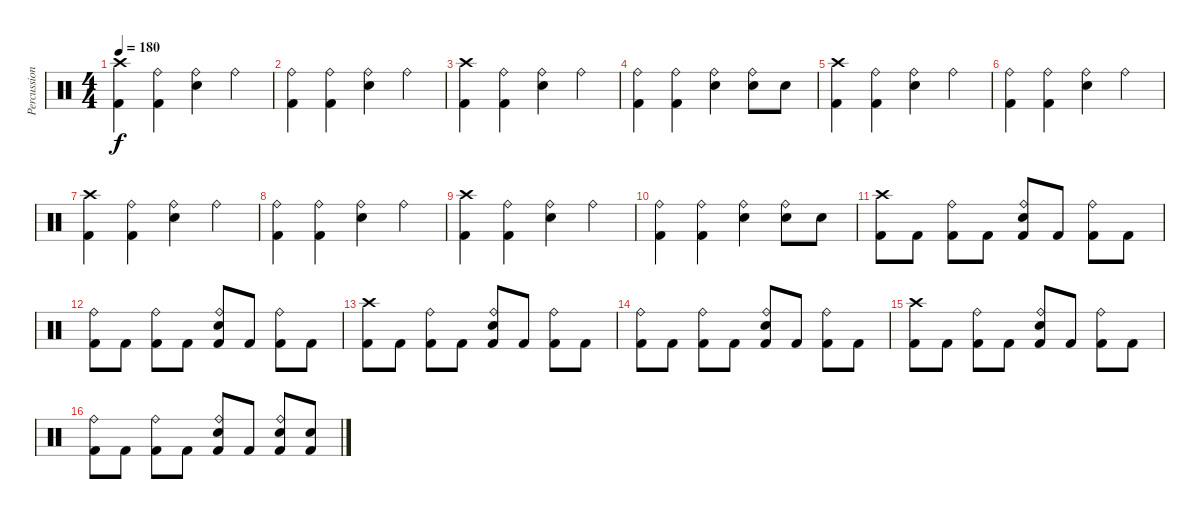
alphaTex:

\track ("Percussion" "Percussion") {instrument percussion}
\staff {score}
\articulation defaults
\ts (4 4)
\tempo 180
\clef neutral
\ks c
("Crash high (hit)" "Kick (hit) 2").4{dy f} ("Ride (bell)" "Kick (hit) 2").4 ("Ride (bell)" "Snare (hit) 2").4 "Ride (bell)".4 |
("Ride (bell)" "Kick (hit) 2").4 ("Ride (bell)" "Kick (hit) 2").4 ("Ride (bell)" "Snare (hit) 2").4 "Ride (bell)".4 |
("Crash high (hit)" "Kick (hit) 2").4 ("Ride (bell)" "Kick (hit) 2").4 ("Ride (bell)" "Snare (hit) 2").4 "Ride (bell)".4 |
("Ride (bell)" "Kick (hit) 2").4 ("Ride (bell)" "Kick (hit) 2").4 ("Ride (bell)" "Snare (hit) 2").4 ("Ride (bell)" "Snare (hit) 2").8 "Snare (hit) 2".8 |
("Crash high (hit)" "Kick (hit) 2").4 ("Ride (bell)" "Kick (hit) 2").4 ("Ride (bell)" "Snare (hit) 2").4 "Ride (bell)".4 |
("Ride (bell)" "Kick (hit) 2").4 ("Ride (bell)" "Kick (hit) 2").4 ("Ride (bell)" "Snare (hit) 2").4 "Ride (bell)".4 |
("Crash high (hit)" "Kick (hit) 2").4 ("Ride (bell)" "Kick (hit) 2").4 ("Ride (bell)" "Snare (hit) 2").4 "Ride (bell)".4 |
("Ride (bell)" "Kick (hit) 2").4 ("Ride (bell)" "Kick (hit) 2").4 ("Ride (bell)" "Snare (hit) 2").4 "Ride (bell)".4 |
("Crash high (hit)" "Kick (hit) 2").4 ("Ride (bell)" "Kick (hit) 2").4 ("Ride (bell)" "Snare (hit) 2").4 "Ride (bell)".4 |
("Ride (bell)" "Kick (hit) 2").4 ("Ride (bell)" "Kick (hit) 2").4 ("Ride (bell)" "Snare (hit) 2").4 ("Ride (bell)" "Snare (hit) 2").8 "Snare (hit) 2".8 |
("Crash high (hit)" "Kick (hit) 2").8 "Kick (hit) 2".8 ("Ride (bell)" "Kick (hit) 2").8 "Kick (hit) 2".8 ("Ride (bell)" "Snare (hit) 2" "Kick (hit) 2").8 "Kick (hit) 2".8 ("Ride (bell)" "Kick (hit) 2").8 "Kick (hit) 2".8 |
("Ride (bell)" "Kick (hit) 2").8 "Kick (hit) 2".8 ("Ride (bell)" "Kick (hit) 2").8 "Kick (hit) 2".8 ("Ride (bell)" "Snare (hit) 2" "Kick (hit) 2").8 "Kick (hit) 2".8 ("Ride (bell)" "Kick (hit) 2").8 "Kick (hit) 2".8 |
("Crash high (hit)" "Kick (hit) 2").8 "Kick (hit) 2".8 ("Ride (bell)" "Kick (hit) 2").8 "Kick (hit) 2".8 ("Ride (bell)" "Snare (hit) 2" "Kick (hit) 2").8 "Kick (hit) 2".8 ("Ride (bell)" "Kick (hit) 2").8 "Kick (hit) 2".8 |
("Ride (bell)" "Kick (hit) 2").8 "Kick (hit) 2".8 ("Ride (bell)" "Kick (hit) 2").8 "Kick (hit) 2".8 ("Ride (bell)" "Snare (hit) 2" "Kick (hit) 2").8 "Kick (hit) 2".8 ("Ride (bell)" "Kick (hit) 2").8 "Kick (hit) 2".8 |
("Crash high (hit)" "Kick (hit) 2").8 "Kick (hit) 2".8 ("Ride (bell)" "Kick (hit) 2").8 "Kick (hit) 2".8 ("Ride (bell)" "Snare (hit) 2" "Kick (hit) 2").8 "Kick (hit) 2".8 ("Ride (bell)" "Kick (hit) 2").8 "Kick (hit) 2".8 |
("Ride (bell)" "Kick (hit) 2").8 "Kick (hit) 2".8 ("Ride (bell)" "Kick (hit) 2").8 "Kick (hit) 2".8 ("Ride (bell)" "Snare (hit) 2" "Kick (hit) 2").8 "Kick (hit) 2".8 ("Ride (bell)" "Snare (hit) 2" "Kick (hit) 2").8 ("Snare (hit) 2" "Kick (hit) 2").8
